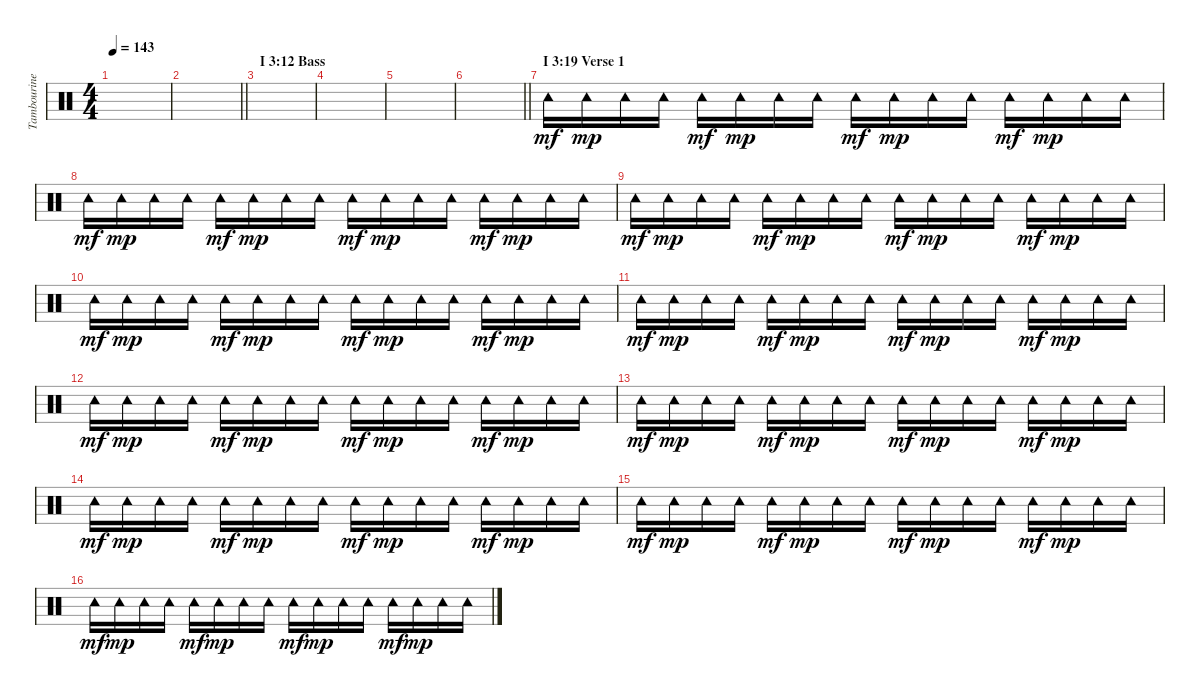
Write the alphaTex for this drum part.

\track ("Tambourine ( I Verse + IV Solo)" "Tambourine") {instrument percussion}
\staff {score}
\articulation defaults
\ts (4 4)
\tempo 143
\clef neutral
\ks c
|
\barLineRight lightlight
|
\section ("" "I 3:12 Bass")
|
|
|
\barLineRight lightlight
|
\section ("" "I 3:19 Verse 1")
"Tambourine (hit)".16{dy mf} "Tambourine (hit)".16{dy mp} "Tambourine (hit)".16 "Tambourine (hit)".16 "Tambourine (hit)".16{dy mf} "Tambourine (hit)".16{dy mp} "Tambourine (hit)".16 "Tambourine (hit)".16 "Tambourine (hit)".16{dy mf} "Tambourine (hit)".16{dy mp} "Tambourine (hit)".16 "Tambourine (hit)".16 "Tambourine (hit)".16{dy mf} "Tambourine (hit)".16{dy mp} "Tambourine (hit)".16 "Tambourine (hit)".16 |
"Tambourine (hit)".16{dy mf} "Tambourine (hit)".16{dy mp} "Tambourine (hit)".16 "Tambourine (hit)".16 "Tambourine (hit)".16{dy mf} "Tambourine (hit)".16{dy mp} "Tambourine (hit)".16 "Tambourine (hit)".16 "Tambourine (hit)".16{dy mf} "Tambourine (hit)".16{dy mp} "Tambourine (hit)".16 "Tambourine (hit)".16 "Tambourine (hit)".16{dy mf} "Tambourine (hit)".16{dy mp} "Tambourine (hit)".16 "Tambourine (hit)".16 |
"Tambourine (hit)".16{dy mf} "Tambourine (hit)".16{dy mp} "Tambourine (hit)".16 "Tambourine (hit)".16 "Tambourine (hit)".16{dy mf} "Tambourine (hit)".16{dy mp} "Tambourine (hit)".16 "Tambourine (hit)".16 "Tambourine (hit)".16{dy mf} "Tambourine (hit)".16{dy mp} "Tambourine (hit)".16 "Tambourine (hit)".16 "Tambourine (hit)".16{dy mf} "Tambourine (hit)".16{dy mp} "Tambourine (hit)".16 "Tambourine (hit)".16 |
"Tambourine (hit)".16{dy mf} "Tambourine (hit)".16{dy mp} "Tambourine (hit)".16 "Tambourine (hit)".16 "Tambourine (hit)".16{dy mf} "Tambourine (hit)".16{dy mp} "Tambourine (hit)".16 "Tambourine (hit)".16 "Tambourine (hit)".16{dy mf} "Tambourine (hit)".16{dy mp} "Tambourine (hit)".16 "Tambourine (hit)".16 "Tambourine (hit)".16{dy mf} "Tambourine (hit)".16{dy mp} "Tambourine (hit)".16 "Tambourine (hit)".16 |
"Tambourine (hit)".16{dy mf} "Tambourine (hit)".16{dy mp} "Tambourine (hit)".16 "Tambourine (hit)".16 "Tambourine (hit)".16{dy mf} "Tambourine (hit)".16{dy mp} "Tambourine (hit)".16 "Tambourine (hit)".16 "Tambourine (hit)".16{dy mf} "Tambourine (hit)".16{dy mp} "Tambourine (hit)".16 "Tambourine (hit)".16 "Tambourine (hit)".16{dy mf} "Tambourine (hit)".16{dy mp} "Tambourine (hit)".16 "Tambourine (hit)".16 |
"Tambourine (hit)".16{dy mf} "Tambourine (hit)".16{dy mp} "Tambourine (hit)".16 "Tambourine (hit)".16 "Tambourine (hit)".16{dy mf} "Tambourine (hit)".16{dy mp} "Tambourine (hit)".16 "Tambourine (hit)".16 "Tambourine (hit)".16{dy mf} "Tambourine (hit)".16{dy mp} "Tambourine (hit)".16 "Tambourine (hit)".16 "Tambourine (hit)".16{dy mf} "Tambourine (hit)".16{dy mp} "Tambourine (hit)".16 "Tambourine (hit)".16 |
"Tambourine (hit)".16{dy mf} "Tambourine (hit)".16{dy mp} "Tambourine (hit)".16 "Tambourine (hit)".16 "Tambourine (hit)".16{dy mf} "Tambourine (hit)".16{dy mp} "Tambourine (hit)".16 "Tambourine (hit)".16 "Tambourine (hit)".16{dy mf} "Tambourine (hit)".16{dy mp} "Tambourine (hit)".16 "Tambourine (hit)".16 "Tambourine (hit)".16{dy mf} "Tambourine (hit)".16{dy mp} "Tambourine (hit)".16 "Tambourine (hit)".16 |
"Tambourine (hit)".16{dy mf} "Tambourine (hit)".16{dy mp} "Tambourine (hit)".16 "Tambourine (hit)".16 "Tambourine (hit)".16{dy mf} "Tambourine (hit)".16{dy mp} "Tambourine (hit)".16 "Tambourine (hit)".16 "Tambourine (hit)".16{dy mf} "Tambourine (hit)".16{dy mp} "Tambourine (hit)".16 "Tambourine (hit)".16 "Tambourine (hit)".16{dy mf} "Tambourine (hit)".16{dy mp} "Tambourine (hit)".16 "Tambourine (hit)".16 |
"Tambourine (hit)".16{dy mf} "Tambourine (hit)".16{dy mp} "Tambourine (hit)".16 "Tambourine (hit)".16 "Tambourine (hit)".16{dy mf} "Tambourine (hit)".16{dy mp} "Tambourine (hit)".16 "Tambourine (hit)".16 "Tambourine (hit)".16{dy mf} "Tambourine (hit)".16{dy mp} "Tambourine (hit)".16 "Tambourine (hit)".16 "Tambourine (hit)".16{dy mf} "Tambourine (hit)".16{dy mp} "Tambourine (hit)".16 "Tambourine (hit)".16 |
"Tambourine (hit)".16{dy mf} "Tambourine (hit)".16{dy mp} "Tambourine (hit)".16 "Tambourine (hit)".16 "Tambourine (hit)".16{dy mf} "Tambourine (hit)".16{dy mp} "Tambourine (hit)".16 "Tambourine (hit)".16 "Tambourine (hit)".16{dy mf} "Tambourine (hit)".16{dy mp} "Tambourine (hit)".16 "Tambourine (hit)".16 "Tambourine (hit)".16{dy mf} "Tambourine (hit)".16{dy mp} "Tambourine (hit)".16 "Tambourine (hit)".16
